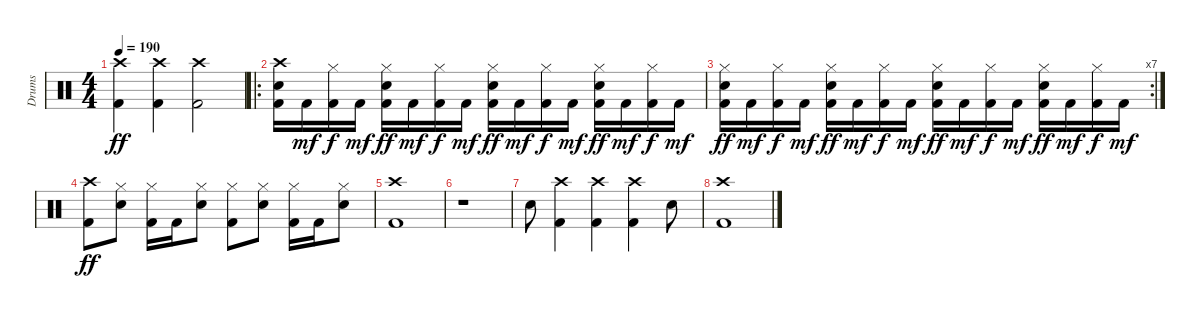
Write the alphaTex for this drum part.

\track ("Drums" "Drums") {instrument percussion}
\staff {score}
\articulation defaults
\ts (4 4)
\tempo 190
\clef neutral
\ks c
("Crash high (hit)" "Kick (hit) 2").4{dy ff} ("Crash high (hit)" "Kick (hit) 2").4 ("Crash high (hit)" "Kick (hit) 2").2 |
\ro
("Crash high (hit)" "Snare (hit) 2" "Kick (hit) 2").16 "Kick (hit) 2".16{dy mf} ("Hi-Hat (closed)" "Kick (hit) 2").16{dy f} "Kick (hit) 2".16{dy mf} ("Hi-Hat (closed)" "Snare (hit) 2" "Kick (hit) 2").16{dy ff} "Kick (hit) 2".16{dy mf} ("Hi-Hat (closed)" "Kick (hit) 2").16{dy f} "Kick (hit) 2".16{dy mf} ("Hi-Hat (closed)" "Snare (hit) 2" "Kick (hit) 2").16{dy ff} "Kick (hit) 2".16{dy mf} ("Hi-Hat (closed)" "Kick (hit) 2").16{dy f} "Kick (hit) 2".16{dy mf} ("Hi-Hat (closed)" "Snare (hit) 2" "Kick (hit) 2").16{dy ff} "Kick (hit) 2".16{dy mf} ("Hi-Hat (closed)" "Kick (hit) 2").16{dy f} "Kick (hit) 2".16{dy mf} |
\rc 7
("Hi-Hat (closed)" "Snare (hit) 2" "Kick (hit) 2").16{dy ff} "Kick (hit) 2".16{dy mf} ("Hi-Hat (closed)" "Kick (hit) 2").16{dy f} "Kick (hit) 2".16{dy mf} ("Hi-Hat (closed)" "Snare (hit) 2" "Kick (hit) 2").16{dy ff} "Kick (hit) 2".16{dy mf} ("Hi-Hat (closed)" "Kick (hit) 2").16{dy f} "Kick (hit) 2".16{dy mf} ("Hi-Hat (closed)" "Snare (hit) 2" "Kick (hit) 2").16{dy ff} "Kick (hit) 2".16{dy mf} ("Hi-Hat (closed)" "Kick (hit) 2").16{dy f} "Kick (hit) 2".16{dy mf} ("Hi-Hat (closed)" "Snare (hit) 2" "Kick (hit) 2").16{dy ff} "Kick (hit) 2".16{dy mf} ("Hi-Hat (closed)" "Kick (hit) 2").16{dy f} "Kick (hit) 2".16{dy mf} |
("Crash high (hit)" "Kick (hit) 2").8{dy ff} ("Hi-Hat (closed)" "Snare (hit) 2").8 ("Hi-Hat (closed)" "Kick (hit) 2").16 "Kick (hit) 2".16 ("Hi-Hat (closed)" "Snare (hit) 2").8 ("Hi-Hat (closed)" "Kick (hit) 2").8 ("Hi-Hat (closed)" "Snare (hit) 2").8 ("Hi-Hat (closed)" "Kick (hit) 2").16 "Kick (hit) 2".16 ("Hi-Hat (closed)" "Snare (hit) 2").8 |
("Crash high (hit)" "Kick (hit) 2").1 |
r.1 |
"Snare (hit) 2".8 ("Crash high (hit)" "Kick (hit) 2").4 ("Crash high (hit)" "Kick (hit) 2").4 ("Crash high (hit)" "Kick (hit) 2").4 "Snare (hit) 2".8 |
("Crash high (hit)" "Kick (hit) 2").1
